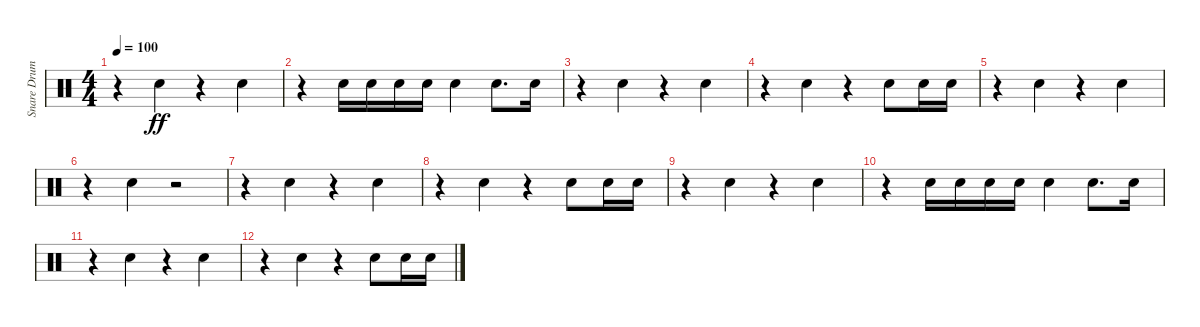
\track ("Snare Drum - reverb" "Snare Drum") {instrument percussion}
\staff {score}
\articulation defaults
\ts (4 4)
\tempo 100
\clef neutral
\ks c
r.4{dy ff} "Snare (hit) 2".4 r.4 "Snare (hit) 2".4 |
r.4 "Snare (hit) 2".16 "Snare (hit) 2".16 "Snare (hit) 2".16 "Snare (hit) 2".16 "Snare (hit) 2".4 "Snare (hit) 2".8{d} "Snare (hit) 2".16 |
r.4 "Snare (hit) 2".4 r.4 "Snare (hit) 2".4 |
r.4 "Snare (hit) 2".4 r.4 "Snare (hit) 2".8 "Snare (hit) 2".16 "Snare (hit) 2".16 |
r.4 "Snare (hit) 2".4 r.4 "Snare (hit) 2".4 |
r.4 "Snare (hit) 2".4 r.2 |
r.4 "Snare (hit) 2".4 r.4 "Snare (hit) 2".4 |
r.4 "Snare (hit) 2".4 r.4 "Snare (hit) 2".8 "Snare (hit) 2".16 "Snare (hit) 2".16 |
r.4 "Snare (hit) 2".4 r.4 "Snare (hit) 2".4 |
r.4 "Snare (hit) 2".16 "Snare (hit) 2".16 "Snare (hit) 2".16 "Snare (hit) 2".16 "Snare (hit) 2".4 "Snare (hit) 2".8{d} "Snare (hit) 2".16 |
r.4 "Snare (hit) 2".4 r.4 "Snare (hit) 2".4 |
r.4 "Snare (hit) 2".4 r.4 "Snare (hit) 2".8 "Snare (hit) 2".16 "Snare (hit) 2".16
